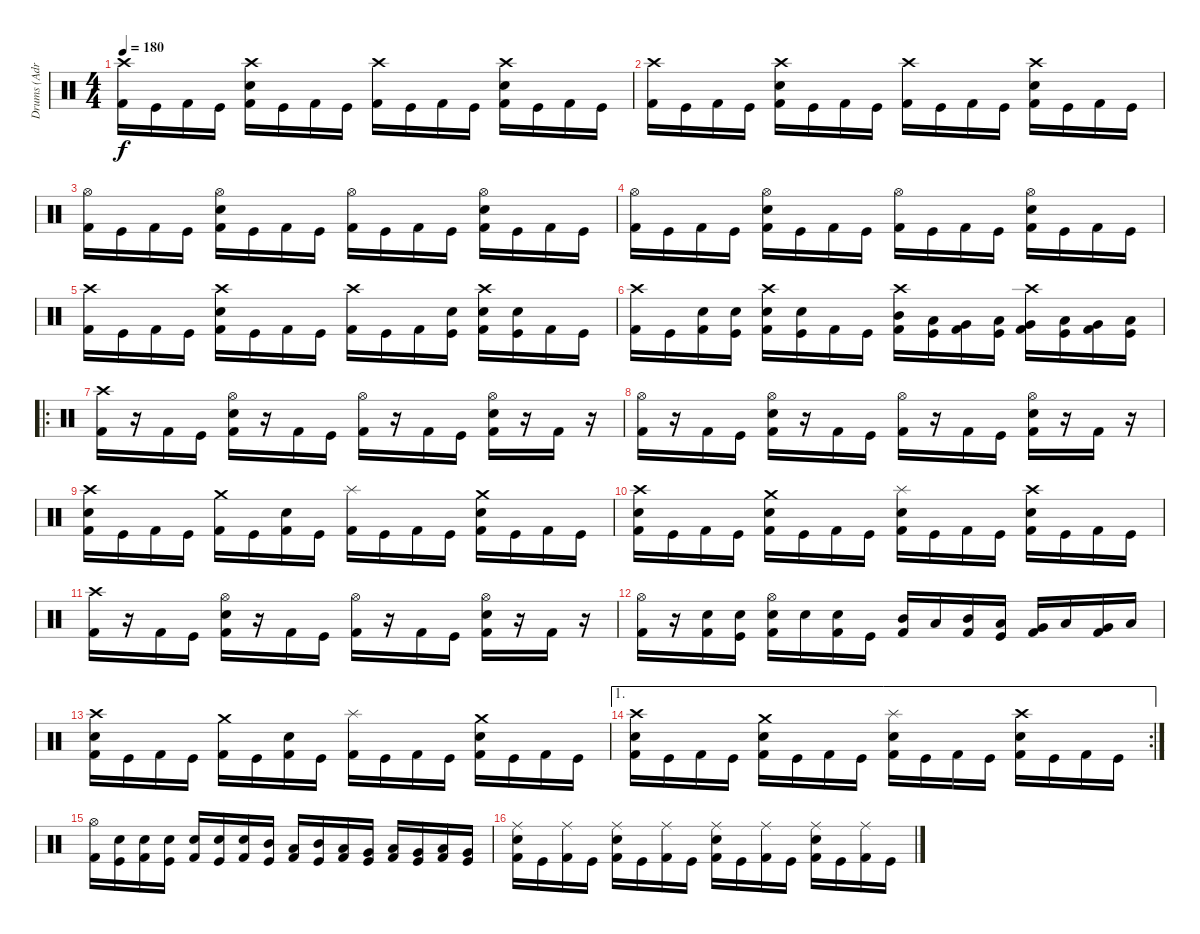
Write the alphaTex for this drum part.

\track ("Drums (Adrian)" "Drums (Adr") {instrument percussion}
\staff {score}
\articulation defaults
\ts (4 4)
\tempo 180
\clef neutral
\ks c
("Crash high (hit)" "Kick (hit) 2").16{dy f} "Kick (hit)".16 "Kick (hit) 2".16 "Kick (hit)".16 ("Crash high (hit)" "Electric Snare (hit)" "Kick (hit) 2").16 "Kick (hit)".16 "Kick (hit) 2".16 "Kick (hit)".16 ("Crash high (hit)" "Kick (hit) 2").16 "Kick (hit)".16 "Kick (hit) 2".16 "Kick (hit)".16 ("Crash high (hit)" "Electric Snare (hit)" "Kick (hit) 2").16 "Kick (hit)".16 "Kick (hit) 2".16 "Kick (hit)".16 |
("Crash high (hit)" "Kick (hit) 2").16 "Kick (hit)".16 "Kick (hit) 2".16 "Kick (hit)".16 ("Crash high (hit)" "Electric Snare (hit)" "Kick (hit) 2").16 "Kick (hit)".16 "Kick (hit) 2".16 "Kick (hit)".16 ("Crash high (hit)" "Kick (hit) 2").16 "Kick (hit)".16 "Kick (hit) 2".16 "Kick (hit)".16 ("Crash high (hit)" "Electric Snare (hit)" "Kick (hit) 2").16 "Kick (hit)".16 "Kick (hit) 2".16 "Kick (hit)".16 |
("Hi-Hat (open)" "Kick (hit) 2").16 "Kick (hit)".16 "Kick (hit) 2".16 "Kick (hit)".16 ("Hi-Hat (open)" "Electric Snare (hit)" "Kick (hit) 2").16 "Kick (hit)".16 "Kick (hit) 2".16 "Kick (hit)".16 ("Hi-Hat (open)" "Kick (hit) 2").16 "Kick (hit)".16 "Kick (hit) 2".16 "Kick (hit)".16 ("Hi-Hat (open)" "Electric Snare (hit)" "Kick (hit) 2").16 "Kick (hit)".16 "Kick (hit) 2".16 "Kick (hit)".16 |
("Hi-Hat (open)" "Kick (hit) 2").16 "Kick (hit)".16 "Kick (hit) 2".16 "Kick (hit)".16 ("Hi-Hat (open)" "Electric Snare (hit)" "Kick (hit) 2").16 "Kick (hit)".16 "Kick (hit) 2".16 "Kick (hit)".16 ("Hi-Hat (open)" "Kick (hit) 2").16 "Kick (hit)".16 "Kick (hit) 2".16 "Kick (hit)".16 ("Hi-Hat (open)" "Electric Snare (hit)" "Kick (hit) 2").16 "Kick (hit)".16 "Kick (hit) 2".16 "Kick (hit)".16 |
("Crash high (hit)" "Kick (hit) 2").16 "Kick (hit)".16 "Kick (hit) 2".16 "Kick (hit)".16 ("Crash high (hit)" "Electric Snare (hit)" "Kick (hit) 2").16 "Kick (hit)".16 "Kick (hit) 2".16 "Kick (hit)".16 ("Crash high (hit)" "Kick (hit) 2").16 "Kick (hit)".16 "Kick (hit) 2".16 ("Electric Snare (hit)" "Kick (hit)").16 ("Crash high (hit)" "Electric Snare (hit)" "Kick (hit) 2").16 ("Electric Snare (hit)" "Kick (hit)").16 "Kick (hit) 2".16 "Kick (hit)".16 |
("Crash high (hit)" "Kick (hit) 2").16 "Kick (hit)".16 ("Electric Snare (hit)" "Kick (hit) 2").16 ("Electric Snare (hit)" "Kick (hit)").16 ("Crash high (hit)" "Electric Snare (hit)" "Kick (hit) 2").16 ("Electric Snare (hit)" "Kick (hit)").16 "Kick (hit) 2".16 "Kick (hit)".16 ("Crash high (hit)" "Mid Tom (hit)" "Kick (hit) 2").16 ("Low Tom (hit)" "Kick (hit)").16 ("Very Low Tom (hit)" "Kick (hit) 2").16 ("Low Tom (hit)" "Kick (hit)").16 ("Crash high (hit)" "Very Low Tom (hit)" "Kick (hit) 2").16 ("Low Floor Tom (hit)" "Kick (hit)").16 ("Very Low Tom (hit)" "Kick (hit) 2").16 ("Low Floor Tom (hit)" "Kick (hit)").16 |
\ro
("Crash high (hit)" "Kick (hit) 2").16 r.16 "Kick (hit) 2".16 "Kick (hit)".16 ("Hi-Hat (open)" "Electric Snare (hit)" "Kick (hit) 2").16 r.16 "Kick (hit) 2".16 "Kick (hit)".16 ("Hi-Hat (open)" "Kick (hit) 2").16 r.16 "Kick (hit) 2".16 "Kick (hit)".16 ("Hi-Hat (open)" "Electric Snare (hit)" "Kick (hit) 2").16 r.16 "Kick (hit) 2".16 r.16 |
("Hi-Hat (open)" "Kick (hit) 2").16 r.16 "Kick (hit) 2".16 "Kick (hit)".16 ("Hi-Hat (open)" "Electric Snare (hit)" "Kick (hit) 2").16 r.16 "Kick (hit) 2".16 "Kick (hit)".16 ("Hi-Hat (open)" "Kick (hit) 2").16 r.16 "Kick (hit) 2".16 "Kick (hit)".16 ("Hi-Hat (open)" "Electric Snare (hit)" "Kick (hit) 2").16 r.16 "Kick (hit) 2".16 r.16 |
("Crash high (hit)" "Electric Snare (hit)" "Kick (hit) 2").16 "Kick (hit)".16 "Kick (hit) 2".16 "Kick (hit)".16 ("Crash medium (hit)" "Kick (hit) 2").16 "Kick (hit)".16 ("Electric Snare (hit)" "Kick (hit) 2").16 "Kick (hit)".16 ("Splash (hit)" "Kick (hit) 2").16 "Kick (hit)".16 "Kick (hit) 2".16 "Kick (hit)".16 ("Crash medium (hit)" "Electric Snare (hit)" "Kick (hit) 2").16 "Kick (hit)".16 "Kick (hit) 2".16 "Kick (hit)".16 |
("Crash high (hit)" "Electric Snare (hit)" "Kick (hit) 2").16 "Kick (hit)".16 "Kick (hit) 2".16 "Kick (hit)".16 ("Crash medium (hit)" "Electric Snare (hit)" "Kick (hit) 2").16 "Kick (hit)".16 "Kick (hit) 2".16 "Kick (hit)".16 ("Splash (hit)" "Electric Snare (hit)" "Kick (hit) 2").16 "Kick (hit)".16 "Kick (hit) 2".16 "Kick (hit)".16 ("Crash high (hit)" "Electric Snare (hit)" "Kick (hit) 2").16 "Kick (hit)".16 "Kick (hit) 2".16 "Kick (hit)".16 |
("Crash high (hit)" "Kick (hit) 2").16 r.16 "Kick (hit) 2".16 "Kick (hit)".16 ("Hi-Hat (open)" "Electric Snare (hit)" "Kick (hit) 2").16 r.16 "Kick (hit) 2".16 "Kick (hit)".16 ("Hi-Hat (open)" "Kick (hit) 2").16 r.16 "Kick (hit) 2".16 "Kick (hit)".16 ("Hi-Hat (open)" "Electric Snare (hit)" "Kick (hit) 2").16 r.16 "Kick (hit) 2".16 r.16 |
("Hi-Hat (open)" "Kick (hit) 2").16 r.16 ("Electric Snare (hit)" "Kick (hit) 2").16 ("Electric Snare (hit)" "Kick (hit)").16 ("Hi-Hat (open)" "Electric Snare (hit)" "Kick (hit) 2").16 "Electric Snare (hit)".16 ("Electric Snare (hit)" "Kick (hit) 2").16 "Kick (hit)".16 ("Mid Tom (hit)" "Kick (hit) 2").16 "Low Tom (hit)".16 ("Mid Tom (hit)" "Kick (hit) 2").16 ("Low Tom (hit)" "Kick (hit)").16 ("Very Low Tom (hit)" "Kick (hit) 2").16 "Low Tom (hit)".16 ("Very Low Tom (hit)" "Kick (hit) 2").16 "Low Floor Tom (hit)".16 |
("Crash high (hit)" "Electric Snare (hit)" "Kick (hit) 2").16 "Kick (hit)".16 "Kick (hit) 2".16 "Kick (hit)".16 ("Crash medium (hit)" "Kick (hit) 2").16 "Kick (hit)".16 ("Electric Snare (hit)" "Kick (hit) 2").16 "Kick (hit)".16 ("Splash (hit)" "Kick (hit) 2").16 "Kick (hit)".16 "Kick (hit) 2".16 "Kick (hit)".16 ("Crash medium (hit)" "Electric Snare (hit)" "Kick (hit) 2").16 "Kick (hit)".16 "Kick (hit) 2".16 "Kick (hit)".16 |
\ae 1
\rc 2
("Crash high (hit)" "Electric Snare (hit)" "Kick (hit) 2").16 "Kick (hit)".16 "Kick (hit) 2".16 "Kick (hit)".16 ("Crash medium (hit)" "Electric Snare (hit)" "Kick (hit) 2").16 "Kick (hit)".16 "Kick (hit) 2".16 "Kick (hit)".16 ("Splash (hit)" "Electric Snare (hit)" "Kick (hit) 2").16 "Kick (hit)".16 "Kick (hit) 2".16 "Kick (hit)".16 ("Crash high (hit)" "Electric Snare (hit)" "Kick (hit) 2").16 "Kick (hit)".16 "Kick (hit) 2".16 "Kick (hit)".16 |
("Hi-Hat (open)" "Kick (hit) 2").16 ("Electric Snare (hit)" "Kick (hit)").16 ("Electric Snare (hit)" "Kick (hit) 2").16 ("Electric Snare (hit)" "Kick (hit)").16 ("Electric Snare (hit)" "Kick (hit) 2").16 ("Electric Snare (hit)" "Kick (hit)").16 ("Electric Snare (hit)" "Kick (hit) 2").16 ("Mid Tom (hit)" "Kick (hit)").16 ("Low Tom (hit)" "Kick (hit) 2").16 ("Mid Tom (hit)" "Kick (hit)").16 ("Low Tom (hit)" "Kick (hit) 2").16 ("Very Low Tom (hit)" "Kick (hit)").16 ("Low Tom (hit)" "Kick (hit) 2").16 ("Very Low Tom (hit)" "Kick (hit)").16 ("Low Floor Tom (hit)" "Kick (hit) 2").16 ("Very Low Tom (hit)" "Kick (hit)").16 |
("Ride (middle)" "Electric Snare (hit)" "Kick (hit) 2").16 "Kick (hit)".16 ("Ride (middle)" "Kick (hit) 2").16 "Kick (hit)".16 ("Ride (middle)" "Electric Snare (hit)" "Kick (hit) 2").16 "Kick (hit)".16 ("Ride (middle)" "Kick (hit) 2").16 "Kick (hit)".16 ("Ride (middle)" "Electric Snare (hit)" "Kick (hit) 2").16 "Kick (hit)".16 ("Ride (middle)" "Kick (hit) 2").16 "Kick (hit)".16 ("Ride (middle)" "Electric Snare (hit)" "Kick (hit) 2").16 "Kick (hit)".16 ("Ride (middle)" "Kick (hit) 2").16 "Kick (hit)".16
